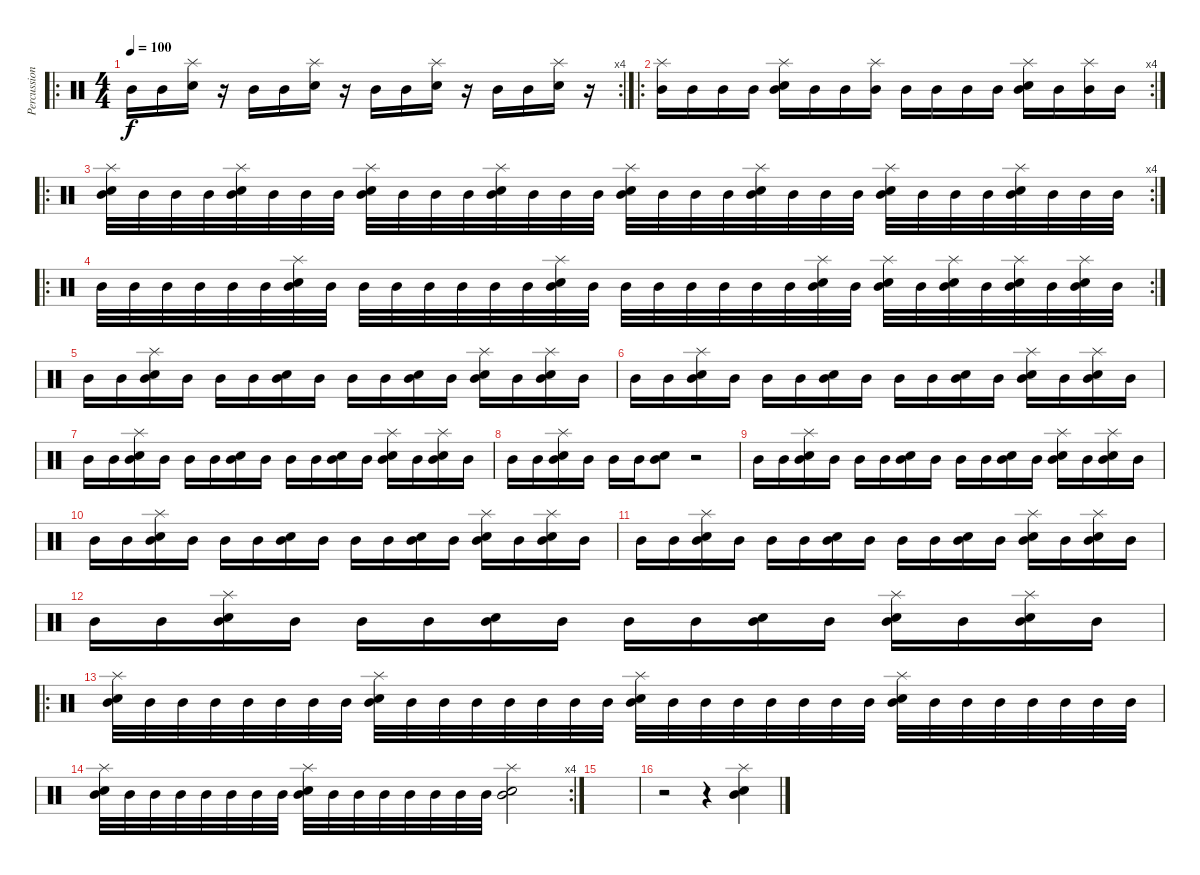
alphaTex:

\track ("Percussion" "Percussion") {instrument percussion}
\staff {score}
\articulation defaults
\ro
\rc 4
\ts (4 4)
\tempo 100
\clef neutral
\ks c "Mid Tom (hit)".16{dy f} "Mid Tom (hit)".16
("Electric Snare (hit)" "Splash (hit)").16 r.16 "Mid Tom (hit)".16 "Mid Tom (hit)".16 ("Electric Snare (hit)" "Splash (hit)").16 r.16 "Mid Tom (hit)".16 "Mid Tom (hit)".16 ("Electric Snare (hit)" "Splash (hit)").16 r.16 "Mid Tom (hit)".16 "Mid Tom (hit)".16 ("Electric Snare (hit)" "Splash (hit)").16 r.16 |
\ro
\rc 4
("Mid Tom (hit)" "Splash (hit)").16 "Mid Tom (hit)".16 "Mid Tom (hit)".16 "Mid Tom (hit)".16 ("Mid Tom (hit)" "Electric Snare (hit)" "Splash (hit)").16 "Mid Tom (hit)".16 "Mid Tom (hit)".16 ("Mid Tom (hit)" "Splash (hit)").16 "Mid Tom (hit)".16 "Mid Tom (hit)".16 "Mid Tom (hit)".16 "Mid Tom (hit)".16 ("Mid Tom (hit)" "Electric Snare (hit)" "Splash (hit)").16 "Mid Tom (hit)".16 ("Mid Tom (hit)" "Splash (hit)").16 "Mid Tom (hit)".16 |
\ro
\rc 4
("Mid Tom (hit)" "Electric Snare (hit)" "Splash (hit)").32 "Mid Tom (hit)".32 "Mid Tom (hit)".32 "Mid Tom (hit)".32 ("Mid Tom (hit)" "Electric Snare (hit)" "Splash (hit)").32 "Mid Tom (hit)".32 "Mid Tom (hit)".32 "Mid Tom (hit)".32 ("Mid Tom (hit)" "Electric Snare (hit)" "Splash (hit)").32 "Mid Tom (hit)".32 "Mid Tom (hit)".32 "Mid Tom (hit)".32 ("Mid Tom (hit)" "Electric Snare (hit)" "Splash (hit)").32 "Mid Tom (hit)".32 "Mid Tom (hit)".32 "Mid Tom (hit)".32 ("Mid Tom (hit)" "Electric Snare (hit)" "Splash (hit)").32 "Mid Tom (hit)".32 "Mid Tom (hit)".32 "Mid Tom (hit)".32 ("Mid Tom (hit)" "Electric Snare (hit)" "Splash (hit)").32 "Mid Tom (hit)".32 "Mid Tom (hit)".32 "Mid Tom (hit)".32 ("Mid Tom (hit)" "Electric Snare (hit)" "Splash (hit)").32 "Mid Tom (hit)".32 "Mid Tom (hit)".32 "Mid Tom (hit)".32 ("Mid Tom (hit)" "Electric Snare (hit)" "Splash (hit)").32 "Mid Tom (hit)".32 "Mid Tom (hit)".32 "Mid Tom (hit)".32 |
\ro
\rc 2 "Mid Tom (hit)".32 "Mid Tom (hit)".32 "Mid Tom (hit)".32 "Mid Tom (hit)".32 "Mid Tom (hit)".32 "Mid Tom (hit)".32
("Mid Tom (hit)" "Electric Snare (hit)" "Splash (hit)").32 "Mid Tom (hit)".32 "Mid Tom (hit)".32 "Mid Tom (hit)".32 "Mid Tom (hit)".32 "Mid Tom (hit)".32 "Mid Tom (hit)".32 "Mid Tom (hit)".32 ("Mid Tom (hit)" "Electric Snare (hit)" "Splash (hit)").32 "Mid Tom (hit)".32 "Mid Tom (hit)".32 "Mid Tom (hit)".32 "Mid Tom (hit)".32 "Mid Tom (hit)".32 "Mid Tom (hit)".32 "Mid Tom (hit)".32 ("Mid Tom (hit)" "Electric Snare (hit)" "Splash (hit)").32 "Mid Tom (hit)".32 ("Mid Tom (hit)" "Electric Snare (hit)" "Splash (hit)").32 "Mid Tom (hit)".32 ("Mid Tom (hit)" "Electric Snare (hit)" "Splash (hit)").32 "Mid Tom (hit)".32 ("Mid Tom (hit)" "Electric Snare (hit)" "Splash (hit)").32 "Mid Tom (hit)".32 ("Mid Tom (hit)" "Electric Snare (hit)" "Splash (hit)").32 "Mid Tom (hit)".32 |
"Mid Tom (hit)".16 "Mid Tom (hit)".16 ("Mid Tom (hit)" "Electric Snare (hit)" "Splash (hit)").16 "Mid Tom (hit)".16 "Mid Tom (hit)".16 "Mid Tom (hit)".16 ("Mid Tom (hit)" "Electric Snare (hit)").16 "Mid Tom (hit)".16 "Mid Tom (hit)".16 "Mid Tom (hit)".16 ("Mid Tom (hit)" "Electric Snare (hit)").16 "Mid Tom (hit)".16 ("Mid Tom (hit)" "Electric Snare (hit)" "Splash (hit)").16 "Mid Tom (hit)".16 ("Mid Tom (hit)" "Electric Snare (hit)" "Splash (hit)").16 "Mid Tom (hit)".16 |
"Mid Tom (hit)".16 "Mid Tom (hit)".16 ("Mid Tom (hit)" "Electric Snare (hit)" "Splash (hit)").16 "Mid Tom (hit)".16 "Mid Tom (hit)".16 "Mid Tom (hit)".16 ("Mid Tom (hit)" "Electric Snare (hit)").16 "Mid Tom (hit)".16 "Mid Tom (hit)".16 "Mid Tom (hit)".16 ("Mid Tom (hit)" "Electric Snare (hit)").16 "Mid Tom (hit)".16 ("Mid Tom (hit)" "Electric Snare (hit)" "Splash (hit)").16 "Mid Tom (hit)".16 ("Mid Tom (hit)" "Electric Snare (hit)" "Splash (hit)").16 "Mid Tom (hit)".16 |
"Mid Tom (hit)".16 "Mid Tom (hit)".16 ("Mid Tom (hit)" "Electric Snare (hit)" "Splash (hit)").16 "Mid Tom (hit)".16 "Mid Tom (hit)".16 "Mid Tom (hit)".16 ("Mid Tom (hit)" "Electric Snare (hit)").16 "Mid Tom (hit)".16 "Mid Tom (hit)".16 "Mid Tom (hit)".16 ("Mid Tom (hit)" "Electric Snare (hit)").16 "Mid Tom (hit)".16 ("Mid Tom (hit)" "Electric Snare (hit)" "Splash (hit)").16 "Mid Tom (hit)".16 ("Mid Tom (hit)" "Electric Snare (hit)" "Splash (hit)").16 "Mid Tom (hit)".16 |
"Mid Tom (hit)".16 "Mid Tom (hit)".16 ("Mid Tom (hit)" "Electric Snare (hit)" "Splash (hit)").16 "Mid Tom (hit)".16 "Mid Tom (hit)".16 "Mid Tom (hit)".16 ("Mid Tom (hit)" "Electric Snare (hit)").8 r.2 |
"Mid Tom (hit)".16 "Mid Tom (hit)".16 ("Mid Tom (hit)" "Electric Snare (hit)" "Splash (hit)").16 "Mid Tom (hit)".16 "Mid Tom (hit)".16 "Mid Tom (hit)".16 ("Mid Tom (hit)" "Electric Snare (hit)").16 "Mid Tom (hit)".16 "Mid Tom (hit)".16 "Mid Tom (hit)".16 ("Mid Tom (hit)" "Electric Snare (hit)").16 "Mid Tom (hit)".16 ("Mid Tom (hit)" "Electric Snare (hit)" "Splash (hit)").16 "Mid Tom (hit)".16 ("Mid Tom (hit)" "Electric Snare (hit)" "Splash (hit)").16 "Mid Tom (hit)".16 |
"Mid Tom (hit)".16 "Mid Tom (hit)".16 ("Mid Tom (hit)" "Electric Snare (hit)" "Splash (hit)").16 "Mid Tom (hit)".16 "Mid Tom (hit)".16 "Mid Tom (hit)".16 ("Mid Tom (hit)" "Electric Snare (hit)").16 "Mid Tom (hit)".16 "Mid Tom (hit)".16 "Mid Tom (hit)".16 ("Mid Tom (hit)" "Electric Snare (hit)").16 "Mid Tom (hit)".16 ("Mid Tom (hit)" "Electric Snare (hit)" "Splash (hit)").16 "Mid Tom (hit)".16 ("Mid Tom (hit)" "Electric Snare (hit)" "Splash (hit)").16 "Mid Tom (hit)".16 |
"Mid Tom (hit)".16 "Mid Tom (hit)".16 ("Mid Tom (hit)" "Electric Snare (hit)" "Splash (hit)").16 "Mid Tom (hit)".16 "Mid Tom (hit)".16 "Mid Tom (hit)".16 ("Mid Tom (hit)" "Electric Snare (hit)").16 "Mid Tom (hit)".16 "Mid Tom (hit)".16 "Mid Tom (hit)".16 ("Mid Tom (hit)" "Electric Snare (hit)").16 "Mid Tom (hit)".16 ("Mid Tom (hit)" "Electric Snare (hit)" "Splash (hit)").16 "Mid Tom (hit)".16 ("Mid Tom (hit)" "Electric Snare (hit)" "Splash (hit)").16 "Mid Tom (hit)".16 |
"Mid Tom (hit)".16 "Mid Tom (hit)".16 ("Mid Tom (hit)" "Electric Snare (hit)" "Splash (hit)").16 "Mid Tom (hit)".16 "Mid Tom (hit)".16 "Mid Tom (hit)".16 ("Mid Tom (hit)" "Electric Snare (hit)").16 "Mid Tom (hit)".16 "Mid Tom (hit)".16 "Mid Tom (hit)".16 ("Mid Tom (hit)" "Electric Snare (hit)").16 "Mid Tom (hit)".16 ("Mid Tom (hit)" "Electric Snare (hit)" "Splash (hit)").16 "Mid Tom (hit)".16 ("Mid Tom (hit)" "Electric Snare (hit)" "Splash (hit)").16 "Mid Tom (hit)".16 |
\ro
("Mid Tom (hit)" "Electric Snare (hit)" "Splash (hit)").32 "Mid Tom (hit)".32 "Mid Tom (hit)".32 "Mid Tom (hit)".32 "Mid Tom (hit)".32 "Mid Tom (hit)".32 "Mid Tom (hit)".32 "Mid Tom (hit)".32 ("Mid Tom (hit)" "Electric Snare (hit)" "Splash (hit)").32 "Mid Tom (hit)".32 "Mid Tom (hit)".32 "Mid Tom (hit)".32 "Mid Tom (hit)".32 "Mid Tom (hit)".32 "Mid Tom (hit)".32 "Mid Tom (hit)".32 ("Mid Tom (hit)" "Electric Snare (hit)" "Splash (hit)").32 "Mid Tom (hit)".32 "Mid Tom (hit)".32 "Mid Tom (hit)".32 "Mid Tom (hit)".32 "Mid Tom (hit)".32 "Mid Tom (hit)".32 "Mid Tom (hit)".32 ("Mid Tom (hit)" "Electric Snare (hit)" "Splash (hit)").32 "Mid Tom (hit)".32 "Mid Tom (hit)".32 "Mid Tom (hit)".32 "Mid Tom (hit)".32 "Mid Tom (hit)".32 "Mid Tom (hit)".32 "Mid Tom (hit)".32 |
\rc 4
("Mid Tom (hit)" "Electric Snare (hit)" "Splash (hit)").32 "Mid Tom (hit)".32 "Mid Tom (hit)".32 "Mid Tom (hit)".32 "Mid Tom (hit)".32 "Mid Tom (hit)".32 "Mid Tom (hit)".32 "Mid Tom (hit)".32 ("Mid Tom (hit)" "Electric Snare (hit)" "Splash (hit)").32 "Mid Tom (hit)".32 "Mid Tom (hit)".32 "Mid Tom (hit)".32 "Mid Tom (hit)".32 "Mid Tom (hit)".32 "Mid Tom (hit)".32 "Mid Tom (hit)".32 ("Mid Tom (hit)" "Electric Snare (hit)" "Splash (hit)").2 |
|
r.2 r.4 ("Mid Tom (hit)" "Electric Snare (hit)" "Splash (hit)").4
